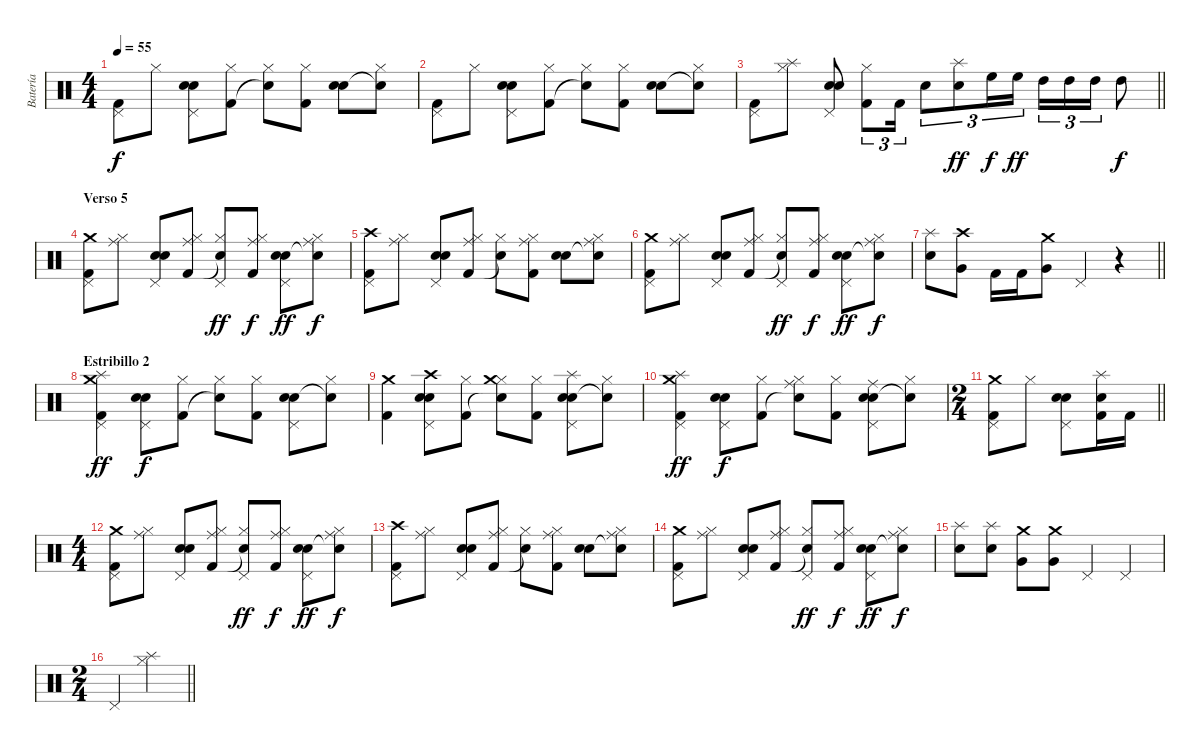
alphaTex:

\track ("Batería" "Batería") {instrument percussion}
\staff {score}
\articulation defaults
\ts (4 4)
\tempo 55
\clef neutral
\ks c
("Kick (hit) 2" "Pedal Hi-Hat (hit)").8{dy f} "Hi-Hat (closed)".8 ("Electric Snare (hit)" "Snare (hit) 2" "Pedal Hi-Hat (hit)").8 ("Kick (hit) 2" "Hi-Hat (closed)").8 ("Snare (hit)"{t} "Hi-Hat (closed)").8 ("Kick (hit) 2" "Hi-Hat (closed)").8 ("Electric Snare (hit)" "Snare (hit) 2").8 ("Snare (hit)"{t} "Hi-Hat (closed)").8 |
("Kick (hit) 2" "Pedal Hi-Hat (hit)").8 "Hi-Hat (closed)".8 ("Electric Snare (hit)" "Snare (hit) 2" "Pedal Hi-Hat (hit)").8 ("Kick (hit) 2" "Hi-Hat (closed)").8 ("Snare (hit)"{t} "Hi-Hat (closed)").8 ("Kick (hit) 2" "Hi-Hat (closed)").8 ("Electric Snare (hit)" "Snare (hit) 2").8 ("Snare (hit)"{t} "Hi-Hat (closed)").8 |
\barLineRight lightlight
("Kick (hit) 2" "Pedal Hi-Hat (hit)").8 ("Hi-Hat (closed)" "Splash (hit)").8 ("Electric Snare (hit)" "Snare (hit) 2" "Pedal Hi-Hat (hit)").8 ("Kick (hit) 2" "Hi-Hat (closed)").8{tu (3 2)} "Kick (hit) 2".16{tu (3 2)} "Snare (hit) 2".8{tu (3 2)} ("Electric Snare (hit)" "Splash (hit)").8{tu (3 2) dy ff} "High Floor Tom (hit)".16{tu (3 2) dy f} "High Floor Tom (hit)".16{tu (3 2) dy ff} "High Tom (hit)".16{tu (3 2)} "High Tom (hit)".16{tu (3 2)} "High Tom (hit)".16{tu (3 2)} "High Tom (hit)".8{dy f} |
\section ("" "Verso 5")
("Crash medium (hit)" "Kick (hit) 2" "Pedal Hi-Hat (hit)").8 ("Hi-Hat (closed)" "Ride (middle)").8 ("Electric Snare (hit)" "Snare (hit) 2" "Pedal Hi-Hat (hit)").8 ("Kick (hit) 2" "Hi-Hat (closed)" "Ride (middle)").8 ("Snare (hit)"{t} "Hi-Hat (closed)" "Pedal Hi-Hat (hit)").8{dy ff} ("Kick (hit) 2" "Hi-Hat (closed)" "Ride (middle)").8{dy f} ("Electric Snare (hit)" "Snare (hit) 2" "Pedal Hi-Hat (hit)").8{dy ff} ("Snare (hit)"{t} "Hi-Hat (closed)" "Ride (middle)").8{dy f} |
("Crash high (hit)" "Kick (hit) 2" "Pedal Hi-Hat (hit)").8 ("Hi-Hat (closed)" "Ride (middle)").8 ("Electric Snare (hit)" "Snare (hit) 2" "Pedal Hi-Hat (hit)").8 ("Kick (hit) 2" "Hi-Hat (closed)" "Ride (middle)").8 ("Snare (hit)"{t} "Hi-Hat (closed)").8 ("Kick (hit) 2" "Hi-Hat (closed)" "Ride (middle)").8 ("Electric Snare (hit)" "Snare (hit) 2").8 ("Snare (hit)"{t} "Hi-Hat (closed)" "Ride (middle)").8 |
("Crash medium (hit)" "Kick (hit) 2" "Pedal Hi-Hat (hit)").8 ("Hi-Hat (closed)" "Ride (middle)").8 ("Electric Snare (hit)" "Snare (hit) 2" "Pedal Hi-Hat (hit)").8 ("Kick (hit) 2" "Hi-Hat (closed)" "Ride (middle)").8 ("Snare (hit)"{t} "Hi-Hat (closed)" "Pedal Hi-Hat (hit)").8{dy ff} ("Kick (hit) 2" "Hi-Hat (closed)" "Ride (middle)").8{dy f} ("Electric Snare (hit)" "Snare (hit) 2" "Pedal Hi-Hat (hit)").8{dy ff} ("Snare (hit)"{t} "Hi-Hat (closed)" "Ride (middle)").8{dy f} |
\barLineRight lightlight
("Splash (hit)" "Snare (hit) 2").8 ("Crash high (hit)" "Very Low Tom (hit)").8 "Kick (hit) 2".16 "Kick (hit) 2".16 ("Crash medium (hit)" "Very Low Tom (hit)").8 "Pedal Hi-Hat (hit)".4 r.4 |
\section ("" "Estribillo 2")
("Crash medium (hit)" "Kick (hit) 2" "Pedal Hi-Hat (hit)" "Splash (hit)").4{dy ff} ("Electric Snare (hit)" "Snare (hit) 2" "Pedal Hi-Hat (hit)").8{dy f} ("Kick (hit) 2" "Hi-Hat (closed)").8 ("Snare (hit)"{t} "Hi-Hat (closed)").8 ("Kick (hit) 2" "Hi-Hat (closed)").8 ("Electric Snare (hit)" "Snare (hit) 2" "Pedal Hi-Hat (hit)").8 ("Snare (hit)"{t} "Hi-Hat (closed)").8 |
("Crash medium (hit)" "Kick (hit) 2").4 ("Electric Snare (hit)" "Snare (hit) 2" "Pedal Hi-Hat (hit)" "Crash high (hit)").8 ("Kick (hit) 2" "Hi-Hat (closed)").8 ("Snare (hit)"{t} "Hi-Hat (closed)" "Crash medium (hit)").8 ("Kick (hit) 2" "Hi-Hat (closed)").8 ("Electric Snare (hit)" "Snare (hit) 2" "Pedal Hi-Hat (hit)" "Splash (hit)").8 ("Snare (hit)"{t} "Hi-Hat (closed)").8 |
("Crash medium (hit)" "Kick (hit) 2" "Pedal Hi-Hat (hit)" "Splash (hit)").4{dy ff} ("Electric Snare (hit)" "Snare (hit) 2" "Pedal Hi-Hat (hit)").8{dy f} ("Kick (hit) 2" "Hi-Hat (closed)").8 ("Snare (hit)"{t} "Hi-Hat (closed)" "Ride (middle)").8 ("Kick (hit) 2" "Hi-Hat (closed)").8 ("Electric Snare (hit)" "Snare (hit) 2" "Pedal Hi-Hat (hit)" "Ride (middle)").8 ("Snare (hit)"{t} "Hi-Hat (closed)").8 |
\ts (2 4)
\barLineRight lightlight
("Crash medium (hit)" "Kick (hit) 2" "Pedal Hi-Hat (hit)").8 "Hi-Hat (closed)".8 ("Electric Snare (hit)" "Snare (hit) 2" "Pedal Hi-Hat (hit)").8 ("Kick (hit) 2" "Splash (hit)" "Snare (hit) 2").16 "Kick (hit) 2".16 |
\ts (4 4)
("Crash medium (hit)" "Kick (hit) 2" "Pedal Hi-Hat (hit)").8 ("Hi-Hat (closed)" "Ride (middle)").8 ("Electric Snare (hit)" "Snare (hit) 2" "Pedal Hi-Hat (hit)").8 ("Kick (hit) 2" "Hi-Hat (closed)" "Ride (middle)").8 ("Snare (hit)"{t} "Hi-Hat (closed)" "Pedal Hi-Hat (hit)").8{dy ff} ("Kick (hit) 2" "Hi-Hat (closed)" "Ride (middle)").8{dy f} ("Electric Snare (hit)" "Snare (hit) 2" "Pedal Hi-Hat (hit)").8{dy ff} ("Snare (hit)"{t} "Hi-Hat (closed)" "Ride (middle)").8{dy f} |
("Crash high (hit)" "Kick (hit) 2" "Pedal Hi-Hat (hit)").8 ("Hi-Hat (closed)" "Ride (middle)").8 ("Electric Snare (hit)" "Snare (hit) 2" "Pedal Hi-Hat (hit)").8 ("Kick (hit) 2" "Hi-Hat (closed)" "Ride (middle)").8 ("Snare (hit)"{t} "Hi-Hat (closed)").8 ("Kick (hit) 2" "Hi-Hat (closed)" "Ride (middle)").8 ("Electric Snare (hit)" "Snare (hit) 2").8 ("Snare (hit)"{t} "Hi-Hat (closed)" "Ride (middle)").8 |
("Crash medium (hit)" "Kick (hit) 2" "Pedal Hi-Hat (hit)").8 ("Hi-Hat (closed)" "Ride (middle)").8 ("Electric Snare (hit)" "Snare (hit) 2" "Pedal Hi-Hat (hit)").8 ("Kick (hit) 2" "Hi-Hat (closed)" "Ride (middle)").8 ("Snare (hit)"{t} "Hi-Hat (closed)" "Pedal Hi-Hat (hit)").8{dy ff} ("Kick (hit) 2" "Hi-Hat (closed)" "Ride (middle)").8{dy f} ("Electric Snare (hit)" "Snare (hit) 2" "Pedal Hi-Hat (hit)").8{dy ff} ("Snare (hit)"{t} "Hi-Hat (closed)" "Ride (middle)").8{dy f} |
("Splash (hit)" "Snare (hit) 2").8 ("Splash (hit)" "Snare (hit) 2").8 ("Crash medium (hit)" "Very Low Tom (hit)").8 ("Crash medium (hit)" "Very Low Tom (hit)").8 "Pedal Hi-Hat (hit)".4 "Pedal Hi-Hat (hit)".4 |
\ts (2 4)
\barLineRight lightlight "Pedal Hi-Hat (hit)".4
("Splash (hit)" "Hi-Hat (closed)").4
